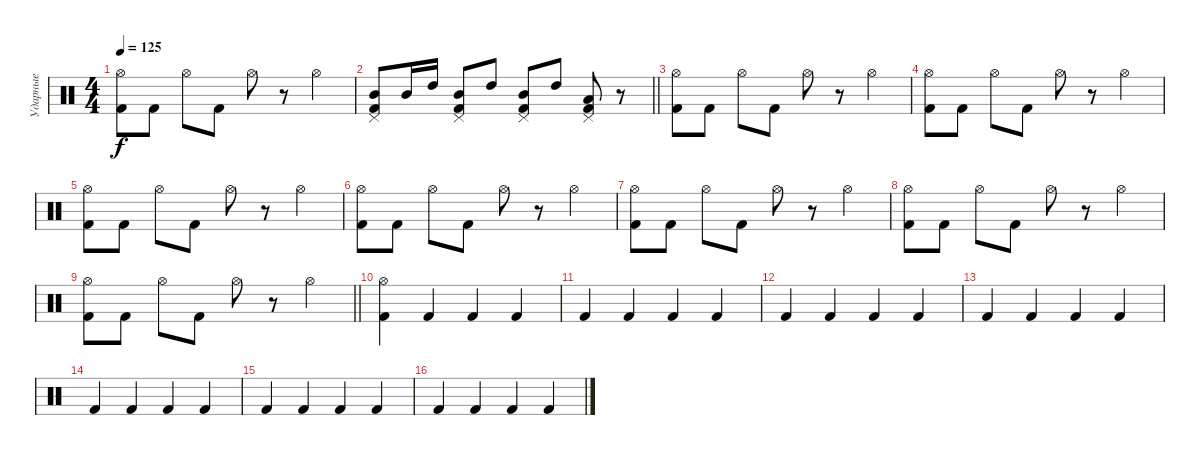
\track ("Ударные" "Ударные") {instrument percussion}
\staff {score}
\articulation defaults
\ts (4 4)
\tempo 125
\clef neutral
\ks c
("Kick (hit) 2" "Hi-Hat (open)").8{dy f} "Kick (hit) 2".8 "Hi-Hat (open)".8 "Kick (hit) 2".8 "Hi-Hat (open)".8 r.8 "Hi-Hat (open)".4 |
\barLineRight lightlight
("Mid Tom (hit)" "Kick (hit) 2" "Pedal Hi-Hat (hit)").8 "Mid Tom (hit)".16 "High Tom (hit)".16 ("Mid Tom (hit)" "Kick (hit) 2" "Pedal Hi-Hat (hit)").8 "High Tom (hit)".8 ("Mid Tom (hit)" "Kick (hit) 2" "Pedal Hi-Hat (hit)").8 "High Tom (hit)".8 ("Low Tom (hit)" "Kick (hit) 2" "Pedal Hi-Hat (hit)").8 r.8 |
("Kick (hit) 2" "Hi-Hat (open)").8 "Kick (hit) 2".8 "Hi-Hat (open)".8 "Kick (hit) 2".8 "Hi-Hat (open)".8 r.8 "Hi-Hat (open)".4 |
("Kick (hit) 2" "Hi-Hat (open)").8 "Kick (hit) 2".8 "Hi-Hat (open)".8 "Kick (hit) 2".8 "Hi-Hat (open)".8 r.8 "Hi-Hat (open)".4 |
("Kick (hit) 2" "Hi-Hat (open)").8 "Kick (hit) 2".8 "Hi-Hat (open)".8 "Kick (hit) 2".8 "Hi-Hat (open)".8 r.8 "Hi-Hat (open)".4 |
("Kick (hit) 2" "Hi-Hat (open)").8 "Kick (hit) 2".8 "Hi-Hat (open)".8 "Kick (hit) 2".8 "Hi-Hat (open)".8 r.8 "Hi-Hat (open)".4 |
("Kick (hit) 2" "Hi-Hat (open)").8 "Kick (hit) 2".8 "Hi-Hat (open)".8 "Kick (hit) 2".8 "Hi-Hat (open)".8 r.8 "Hi-Hat (open)".4 |
("Kick (hit) 2" "Hi-Hat (open)").8 "Kick (hit) 2".8 "Hi-Hat (open)".8 "Kick (hit) 2".8 "Hi-Hat (open)".8 r.8 "Hi-Hat (open)".4 |
\barLineRight lightlight
("Kick (hit) 2" "Hi-Hat (open)").8 "Kick (hit) 2".8 "Hi-Hat (open)".8 "Kick (hit) 2".8 "Hi-Hat (open)".8 r.8 "Hi-Hat (open)".4 |
("Kick (hit) 2" "Hi-Hat (open)").4 "Kick (hit) 2".4 "Kick (hit) 2".4 "Kick (hit) 2".4 |
"Kick (hit) 2".4 "Kick (hit) 2".4 "Kick (hit) 2".4 "Kick (hit) 2".4 |
"Kick (hit) 2".4 "Kick (hit) 2".4 "Kick (hit) 2".4 "Kick (hit) 2".4 |
"Kick (hit) 2".4 "Kick (hit) 2".4 "Kick (hit) 2".4 "Kick (hit) 2".4 |
"Kick (hit) 2".4 "Kick (hit) 2".4 "Kick (hit) 2".4 "Kick (hit) 2".4 |
"Kick (hit) 2".4 "Kick (hit) 2".4 "Kick (hit) 2".4 "Kick (hit) 2".4 |
"Kick (hit) 2".4 "Kick (hit) 2".4 "Kick (hit) 2".4 "Kick (hit) 2".4
